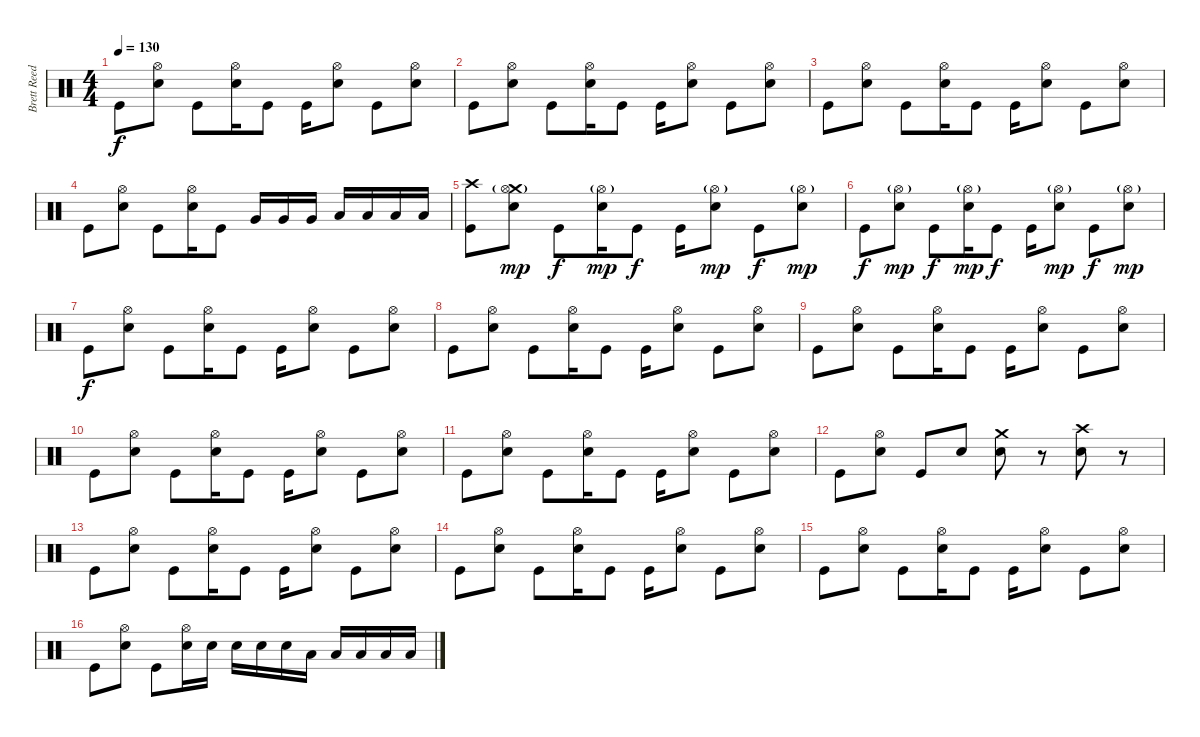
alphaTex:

\track ("Brett Reed" "Brett Reed") {instrument percussion}
\staff {score}
\articulation defaults
\ts (4 4)
\tempo 130
\clef neutral
\ks c "Kick (hit)".8{dy f}
("Hi-Hat (open)" "Electric Snare (hit)").8 "Kick (hit)".8 ("Hi-Hat (open)" "Electric Snare (hit)").16 "Kick (hit)".8 "Kick (hit)".16 ("Hi-Hat (open)" "Electric Snare (hit)").8 "Kick (hit)".8 ("Hi-Hat (open)" "Electric Snare (hit)").8 |
"Kick (hit)".8 ("Hi-Hat (open)" "Electric Snare (hit)").8 "Kick (hit)".8 ("Hi-Hat (open)" "Electric Snare (hit)").16 "Kick (hit)".8 "Kick (hit)".16 ("Hi-Hat (open)" "Electric Snare (hit)").8 "Kick (hit)".8 ("Hi-Hat (open)" "Electric Snare (hit)").8 |
"Kick (hit)".8 ("Hi-Hat (open)" "Electric Snare (hit)").8 "Kick (hit)".8 ("Hi-Hat (open)" "Electric Snare (hit)").16 "Kick (hit)".8 "Kick (hit)".16 ("Hi-Hat (open)" "Electric Snare (hit)").8 "Kick (hit)".8 ("Hi-Hat (open)" "Electric Snare (hit)").8 |
"Kick (hit)".8 ("Hi-Hat (open)" "Electric Snare (hit)").8 "Kick (hit)".8 ("Hi-Hat (open)" "Electric Snare (hit)").16 "Kick (hit)".8 "Very Low Tom (hit)".16 "Very Low Tom (hit)".16 "Very Low Tom (hit)".16 "Low Floor Tom (hit)".16 "Low Floor Tom (hit)".16 "Low Floor Tom (hit)".16 "Low Floor Tom (hit)".16 |
("Crash high (hit)" "Kick (hit)").8 ("Crash medium (hit)" "Hi-Hat (open)"{g} "Electric Snare (hit)").8{dy mp} "Kick (hit)".8{dy f} ("Hi-Hat (open)"{g} "Electric Snare (hit)").16{dy mp} "Kick (hit)".8{dy f} "Kick (hit)".16 ("Hi-Hat (open)"{g} "Electric Snare (hit)").8{dy mp} "Kick (hit)".8{dy f} ("Hi-Hat (open)"{g} "Electric Snare (hit)").8{dy mp} |
"Kick (hit)".8{dy f} ("Hi-Hat (open)"{g} "Electric Snare (hit)").8{dy mp} "Kick (hit)".8{dy f} ("Hi-Hat (open)"{g} "Electric Snare (hit)").16{dy mp} "Kick (hit)".8{dy f} "Kick (hit)".16 ("Hi-Hat (open)"{g} "Electric Snare (hit)").8{dy mp} "Kick (hit)".8{dy f} ("Hi-Hat (open)"{g} "Electric Snare (hit)").8{dy mp} |
"Kick (hit)".8{dy f} ("Hi-Hat (open)" "Electric Snare (hit)").8 "Kick (hit)".8 ("Hi-Hat (open)" "Electric Snare (hit)").16 "Kick (hit)".8 "Kick (hit)".16 ("Hi-Hat (open)" "Electric Snare (hit)").8 "Kick (hit)".8 ("Hi-Hat (open)" "Electric Snare (hit)").8 |
"Kick (hit)".8 ("Hi-Hat (open)" "Electric Snare (hit)").8 "Kick (hit)".8 ("Hi-Hat (open)" "Electric Snare (hit)").16 "Kick (hit)".8 "Kick (hit)".16 ("Hi-Hat (open)" "Electric Snare (hit)").8 "Kick (hit)".8 ("Hi-Hat (open)" "Electric Snare (hit)").8 |
"Kick (hit)".8 ("Hi-Hat (open)" "Electric Snare (hit)").8 "Kick (hit)".8 ("Hi-Hat (open)" "Electric Snare (hit)").16 "Kick (hit)".8 "Kick (hit)".16 ("Hi-Hat (open)" "Electric Snare (hit)").8 "Kick (hit)".8 ("Hi-Hat (open)" "Electric Snare (hit)").8 |
"Kick (hit)".8 ("Hi-Hat (open)" "Electric Snare (hit)").8 "Kick (hit)".8 ("Hi-Hat (open)" "Electric Snare (hit)").16 "Kick (hit)".8 "Kick (hit)".16 ("Hi-Hat (open)" "Electric Snare (hit)").8 "Kick (hit)".8 ("Hi-Hat (open)" "Electric Snare (hit)").8 |
"Kick (hit)".8 ("Hi-Hat (open)" "Electric Snare (hit)").8 "Kick (hit)".8 ("Hi-Hat (open)" "Electric Snare (hit)").16 "Kick (hit)".8 "Kick (hit)".16 ("Hi-Hat (open)" "Electric Snare (hit)").8 "Kick (hit)".8 ("Hi-Hat (open)" "Electric Snare (hit)").8 |
"Kick (hit)".8 ("Hi-Hat (open)" "Electric Snare (hit)").8 "Kick (hit)".8 "Electric Snare (hit)".8 ("Crash medium (hit)" "Electric Snare (hit)").8 r.8 ("Crash high (hit)" "Electric Snare (hit)").8 r.8 |
"Kick (hit)".8 ("Hi-Hat (open)" "Electric Snare (hit)").8 "Kick (hit)".8 ("Hi-Hat (open)" "Electric Snare (hit)").16 "Kick (hit)".8 "Kick (hit)".16 ("Hi-Hat (open)" "Electric Snare (hit)").8 "Kick (hit)".8 ("Hi-Hat (open)" "Electric Snare (hit)").8 |
"Kick (hit)".8 ("Hi-Hat (open)" "Electric Snare (hit)").8 "Kick (hit)".8 ("Hi-Hat (open)" "Electric Snare (hit)").16 "Kick (hit)".8 "Kick (hit)".16 ("Hi-Hat (open)" "Electric Snare (hit)").8 "Kick (hit)".8 ("Hi-Hat (open)" "Electric Snare (hit)").8 |
"Kick (hit)".8 ("Hi-Hat (open)" "Electric Snare (hit)").8 "Kick (hit)".8 ("Hi-Hat (open)" "Electric Snare (hit)").16 "Kick (hit)".8 "Kick (hit)".16 ("Hi-Hat (open)" "Electric Snare (hit)").8 "Kick (hit)".8 ("Hi-Hat (open)" "Electric Snare (hit)").8 |
"Kick (hit)".8 ("Hi-Hat (open)" "Electric Snare (hit)").8 "Kick (hit)".8 ("Hi-Hat (open)" "Electric Snare (hit)").16 "Electric Snare (hit)".16 "Electric Snare (hit)".16 "Electric Snare (hit)".16 "Electric Snare (hit)".16 "Low Tom (hit)".16 "Low Tom (hit)".16 "Low Tom (hit)".16 "Low Tom (hit)".16 "Low Tom (hit)".16
